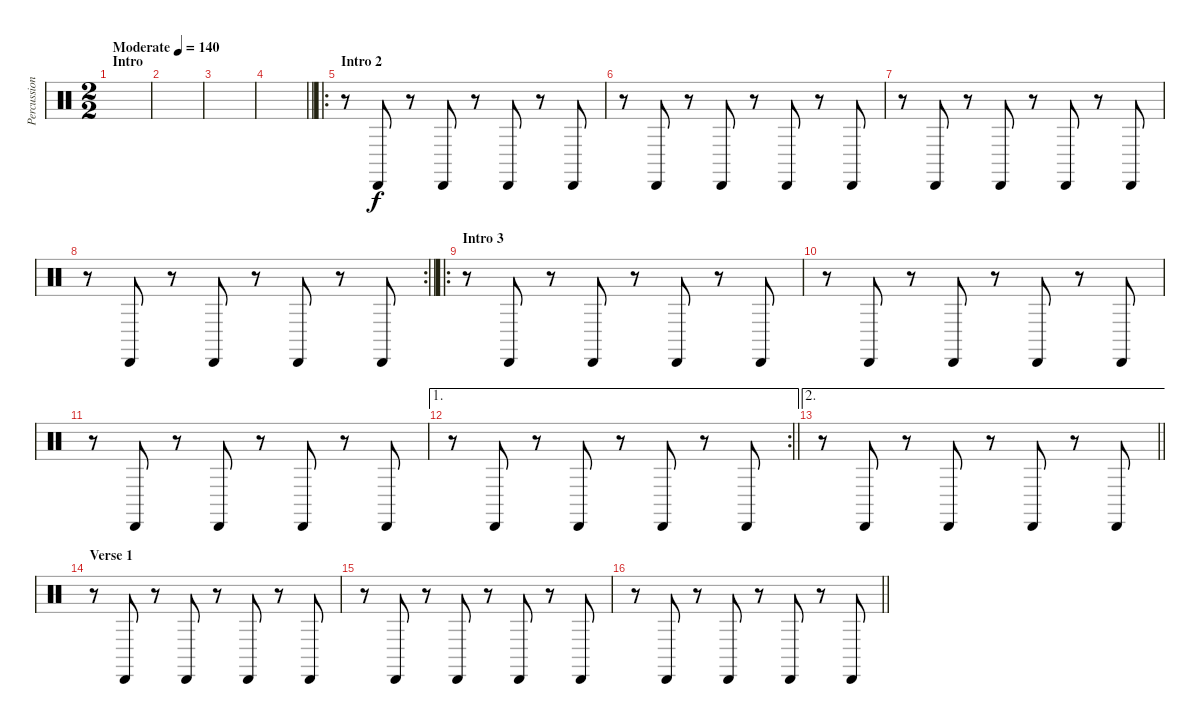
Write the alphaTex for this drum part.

\track ("Percussion 2" "Percussion") {instrument percussion}
\staff {score}
\articulation defaults
\ts (2 2)
\section ("" "Intro")
\tempo (140 "Moderate")
\clef neutral
\ks c
|
|
|
\barLineRight lightlight
|
\ro
\section ("" "Intro 2")
r.8 "Cabasa (hit)".8 r.8 "Cabasa (hit)".8 r.8 "Cabasa (hit)".8 r.8 "Cabasa (hit)".8 |
r.8 "Cabasa (hit)".8 r.8 "Cabasa (hit)".8 r.8 "Cabasa (hit)".8 r.8 "Cabasa (hit)".8 |
r.8 "Cabasa (hit)".8 r.8 "Cabasa (hit)".8 r.8 "Cabasa (hit)".8 r.8 "Cabasa (hit)".8 |
\rc 2
\barLineRight lightlight
r.8 "Cabasa (hit)".8 r.8 "Cabasa (hit)".8 r.8 "Cabasa (hit)".8 r.8 "Cabasa (hit)".8 |
\ro
\section ("" "Intro 3")
r.8 "Cabasa (hit)".8 r.8 "Cabasa (hit)".8 r.8 "Cabasa (hit)".8 r.8 "Cabasa (hit)".8 |
r.8 "Cabasa (hit)".8 r.8 "Cabasa (hit)".8 r.8 "Cabasa (hit)".8 r.8 "Cabasa (hit)".8 |
r.8 "Cabasa (hit)".8 r.8 "Cabasa (hit)".8 r.8 "Cabasa (hit)".8 r.8 "Cabasa (hit)".8 |
\ae 1
\rc 2
\barLineRight lightlight
r.8 "Cabasa (hit)".8 r.8 "Cabasa (hit)".8 r.8 "Cabasa (hit)".8 r.8 "Cabasa (hit)".8 |
\ae 2
\barLineRight lightlight
r.8 "Cabasa (hit)".8 r.8 "Cabasa (hit)".8 r.8 "Cabasa (hit)".8 r.8 "Cabasa (hit)".8 |
\section ("" "Verse 1")
r.8 "Cabasa (hit)".8 r.8 "Cabasa (hit)".8 r.8 "Cabasa (hit)".8 r.8 "Cabasa (hit)".8 |
r.8 "Cabasa (hit)".8 r.8 "Cabasa (hit)".8 r.8 "Cabasa (hit)".8 r.8 "Cabasa (hit)".8 |
\barLineRight lightlight
r.8 "Cabasa (hit)".8 r.8 "Cabasa (hit)".8 r.8 "Cabasa (hit)".8 r.8 "Cabasa (hit)".8
